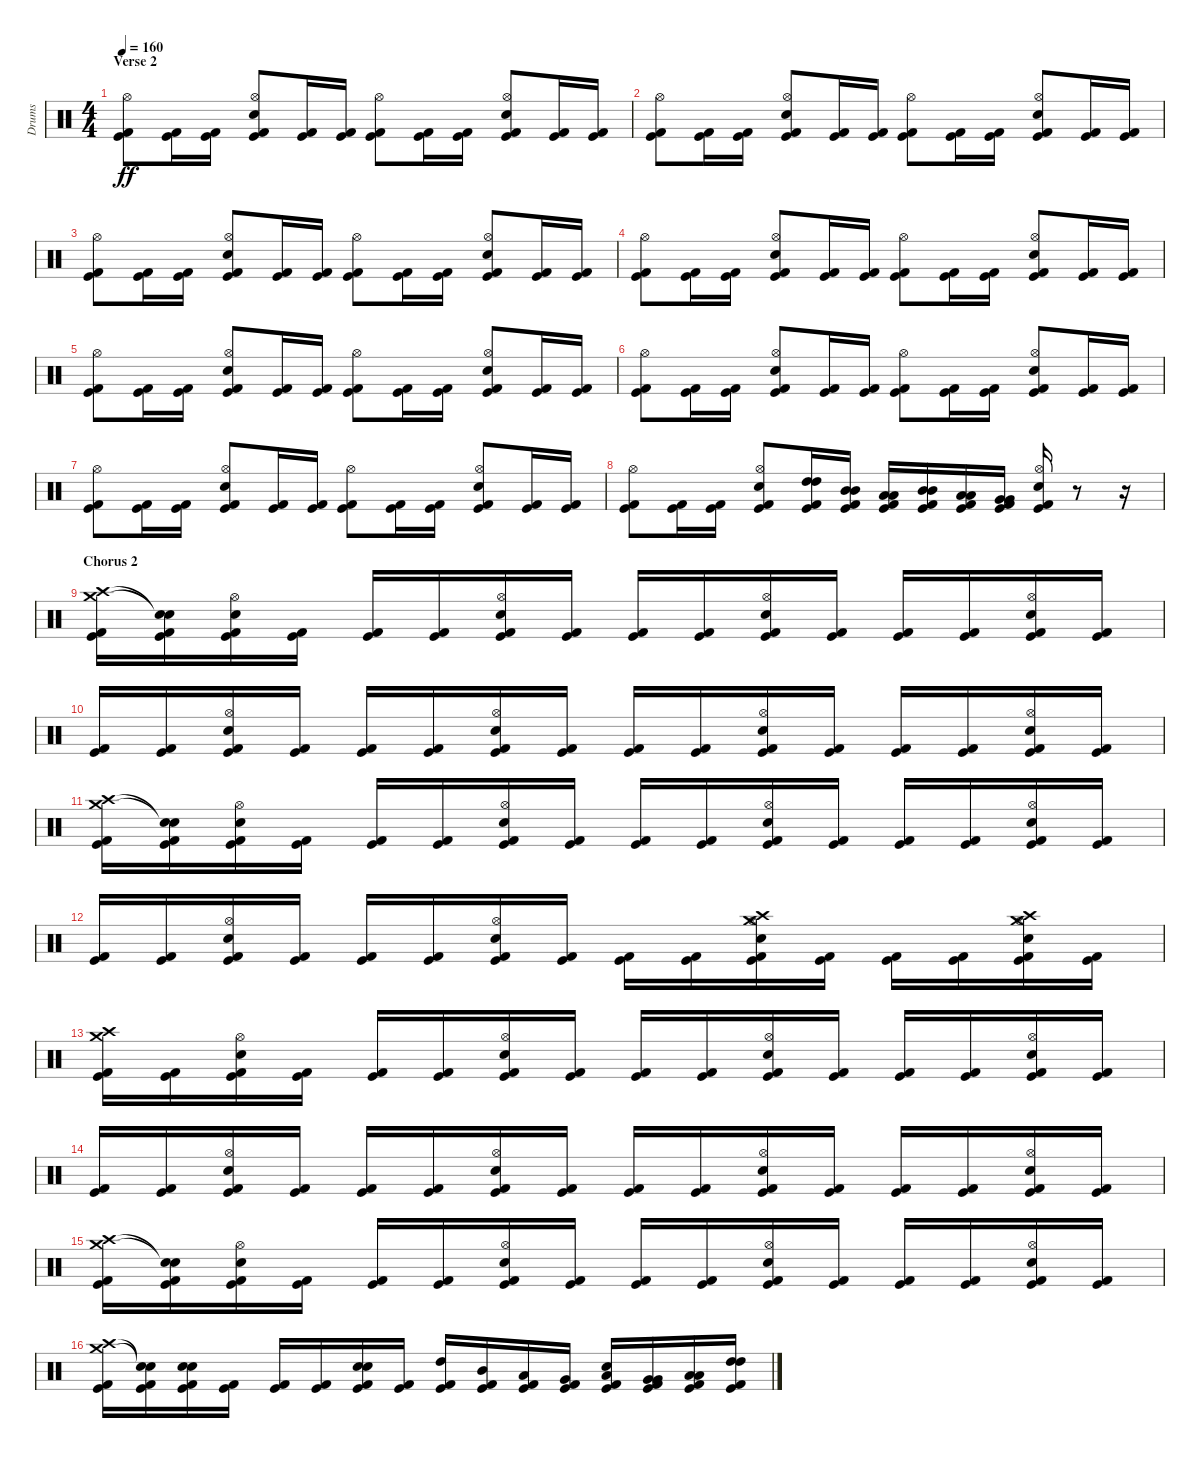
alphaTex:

\track ("Drums" "Drums") {instrument percussion}
\staff {score}
\articulation defaults
\ts (4 4)
\section ("" "Verse 2")
\tempo 160
\clef neutral
\ks c
("Kick (hit) 2" "Kick (hit)" "Hi-Hat (open)").8{dy ff} ("Kick (hit) 2" "Kick (hit)").16 ("Kick (hit) 2" "Kick (hit)").16 ("Kick (hit) 2" "Kick (hit)" "Snare (hit) 2" "Hi-Hat (open)").8 ("Kick (hit) 2" "Kick (hit)").16 ("Kick (hit) 2" "Kick (hit)").16 ("Kick (hit) 2" "Kick (hit)" "Hi-Hat (open)").8 ("Kick (hit) 2" "Kick (hit)").16 ("Kick (hit) 2" "Kick (hit)").16 ("Kick (hit) 2" "Kick (hit)" "Snare (hit) 2" "Hi-Hat (open)").8 ("Kick (hit) 2" "Kick (hit)").16 ("Kick (hit) 2" "Kick (hit)").16 |
("Kick (hit) 2" "Kick (hit)" "Hi-Hat (open)").8 ("Kick (hit) 2" "Kick (hit)").16 ("Kick (hit) 2" "Kick (hit)").16 ("Kick (hit) 2" "Kick (hit)" "Snare (hit) 2" "Hi-Hat (open)").8 ("Kick (hit) 2" "Kick (hit)").16 ("Kick (hit) 2" "Kick (hit)").16 ("Kick (hit) 2" "Kick (hit)" "Hi-Hat (open)").8 ("Kick (hit) 2" "Kick (hit)").16 ("Kick (hit) 2" "Kick (hit)").16 ("Kick (hit) 2" "Kick (hit)" "Snare (hit) 2" "Hi-Hat (open)").8 ("Kick (hit) 2" "Kick (hit)").16 ("Kick (hit) 2" "Kick (hit)").16 |
("Kick (hit) 2" "Kick (hit)" "Hi-Hat (open)").8 ("Kick (hit) 2" "Kick (hit)").16 ("Kick (hit) 2" "Kick (hit)").16 ("Kick (hit) 2" "Kick (hit)" "Snare (hit) 2" "Hi-Hat (open)").8 ("Kick (hit) 2" "Kick (hit)").16 ("Kick (hit) 2" "Kick (hit)").16 ("Kick (hit) 2" "Kick (hit)" "Hi-Hat (open)").8 ("Kick (hit) 2" "Kick (hit)").16 ("Kick (hit) 2" "Kick (hit)").16 ("Kick (hit) 2" "Kick (hit)" "Snare (hit) 2" "Hi-Hat (open)").8 ("Kick (hit) 2" "Kick (hit)").16 ("Kick (hit) 2" "Kick (hit)").16 |
("Kick (hit) 2" "Kick (hit)" "Hi-Hat (open)").8 ("Kick (hit) 2" "Kick (hit)").16 ("Kick (hit) 2" "Kick (hit)").16 ("Kick (hit) 2" "Kick (hit)" "Snare (hit) 2" "Hi-Hat (open)").8 ("Kick (hit) 2" "Kick (hit)").16 ("Kick (hit) 2" "Kick (hit)").16 ("Kick (hit) 2" "Kick (hit)" "Hi-Hat (open)").8 ("Kick (hit) 2" "Kick (hit)").16 ("Kick (hit) 2" "Kick (hit)").16 ("Kick (hit) 2" "Kick (hit)" "Snare (hit) 2" "Hi-Hat (open)").8 ("Kick (hit) 2" "Kick (hit)").16 ("Kick (hit) 2" "Kick (hit)").16 |
("Kick (hit) 2" "Kick (hit)" "Hi-Hat (open)").8 ("Kick (hit) 2" "Kick (hit)").16 ("Kick (hit) 2" "Kick (hit)").16 ("Kick (hit) 2" "Kick (hit)" "Snare (hit) 2" "Hi-Hat (open)").8 ("Kick (hit) 2" "Kick (hit)").16 ("Kick (hit) 2" "Kick (hit)").16 ("Kick (hit) 2" "Kick (hit)" "Hi-Hat (open)").8 ("Kick (hit) 2" "Kick (hit)").16 ("Kick (hit) 2" "Kick (hit)").16 ("Kick (hit) 2" "Kick (hit)" "Snare (hit) 2" "Hi-Hat (open)").8 ("Kick (hit) 2" "Kick (hit)").16 ("Kick (hit) 2" "Kick (hit)").16 |
("Kick (hit) 2" "Kick (hit)" "Hi-Hat (open)").8 ("Kick (hit) 2" "Kick (hit)").16 ("Kick (hit) 2" "Kick (hit)").16 ("Kick (hit) 2" "Kick (hit)" "Snare (hit) 2" "Hi-Hat (open)").8 ("Kick (hit) 2" "Kick (hit)").16 ("Kick (hit) 2" "Kick (hit)").16 ("Kick (hit) 2" "Kick (hit)" "Hi-Hat (open)").8 ("Kick (hit) 2" "Kick (hit)").16 ("Kick (hit) 2" "Kick (hit)").16 ("Kick (hit) 2" "Kick (hit)" "Snare (hit) 2" "Hi-Hat (open)").8 ("Kick (hit) 2" "Kick (hit)").16 ("Kick (hit) 2" "Kick (hit)").16 |
("Kick (hit) 2" "Kick (hit)" "Hi-Hat (open)").8 ("Kick (hit) 2" "Kick (hit)").16 ("Kick (hit) 2" "Kick (hit)").16 ("Kick (hit) 2" "Kick (hit)" "Snare (hit) 2" "Hi-Hat (open)").8 ("Kick (hit) 2" "Kick (hit)").16 ("Kick (hit) 2" "Kick (hit)").16 ("Kick (hit) 2" "Kick (hit)" "Hi-Hat (open)").8 ("Kick (hit) 2" "Kick (hit)").16 ("Kick (hit) 2" "Kick (hit)").16 ("Kick (hit) 2" "Kick (hit)" "Snare (hit) 2" "Hi-Hat (open)").8 ("Kick (hit) 2" "Kick (hit)").16 ("Kick (hit) 2" "Kick (hit)").16 |
("Kick (hit) 2" "Kick (hit)" "Hi-Hat (open)").8 ("Kick (hit) 2" "Kick (hit)").16 ("Kick (hit) 2" "Kick (hit)").16 ("Kick (hit) 2" "Kick (hit)" "Snare (hit) 2" "Hi-Hat (open)").8 ("Kick (hit) 2" "Kick (hit)" "High Tom (hit)" "High Tom (hit)").16 ("Kick (hit) 2" "Kick (hit)" "Mid Tom (hit)" "Mid Tom (hit)").16 ("Kick (hit) 2" "Kick (hit)" "Low Tom (hit)" "Low Tom (hit)").16 ("Kick (hit) 2" "Kick (hit)" "Mid Tom (hit)" "Mid Tom (hit)").16 ("Kick (hit) 2" "Kick (hit)" "Low Tom (hit)" "Low Tom (hit)").16 ("Kick (hit) 2" "Kick (hit)" "Very Low Tom (hit)" "Very Low Tom (hit)").16 ("Kick (hit) 2" "Kick (hit)" "Snare (hit) 2" "Hi-Hat (open)").16 r.8 r.16 |
\section ("" "Chorus 2")
("Kick (hit) 2" "Kick (hit)" "Crash high (hit)" "Crash medium (hit)").16 ("Kick (hit) 2" "Kick (hit)" "Snare (hit)"{t} "Snare (hit)"{t}).16 ("Kick (hit) 2" "Kick (hit)" "Hi-Hat (open)" "Snare (hit) 2").16 ("Kick (hit) 2" "Kick (hit)").16 ("Kick (hit) 2" "Kick (hit)").16 ("Kick (hit) 2" "Kick (hit)").16 ("Kick (hit) 2" "Kick (hit)" "Hi-Hat (open)" "Snare (hit) 2").16 ("Kick (hit) 2" "Kick (hit)").16 ("Kick (hit) 2" "Kick (hit)").16 ("Kick (hit) 2" "Kick (hit)").16 ("Kick (hit) 2" "Kick (hit)" "Hi-Hat (open)" "Snare (hit) 2").16 ("Kick (hit) 2" "Kick (hit)").16 ("Kick (hit) 2" "Kick (hit)").16 ("Kick (hit) 2" "Kick (hit)").16 ("Kick (hit) 2" "Kick (hit)" "Hi-Hat (open)" "Snare (hit) 2").16 ("Kick (hit) 2" "Kick (hit)").16 |
("Kick (hit) 2" "Kick (hit)").16 ("Kick (hit) 2" "Kick (hit)").16 ("Kick (hit) 2" "Kick (hit)" "Hi-Hat (open)" "Snare (hit) 2").16 ("Kick (hit) 2" "Kick (hit)").16 ("Kick (hit) 2" "Kick (hit)").16 ("Kick (hit) 2" "Kick (hit)").16 ("Kick (hit) 2" "Kick (hit)" "Hi-Hat (open)" "Snare (hit) 2").16 ("Kick (hit) 2" "Kick (hit)").16 ("Kick (hit) 2" "Kick (hit)").16 ("Kick (hit) 2" "Kick (hit)").16 ("Kick (hit) 2" "Kick (hit)" "Hi-Hat (open)" "Snare (hit) 2").16 ("Kick (hit) 2" "Kick (hit)").16 ("Kick (hit) 2" "Kick (hit)").16 ("Kick (hit) 2" "Kick (hit)").16 ("Kick (hit) 2" "Kick (hit)" "Hi-Hat (open)" "Snare (hit) 2").16 ("Kick (hit) 2" "Kick (hit)").16 |
("Kick (hit) 2" "Kick (hit)" "Crash high (hit)" "Crash medium (hit)").16 ("Kick (hit) 2" "Kick (hit)" "Snare (hit)"{t} "Snare (hit)"{t}).16 ("Kick (hit) 2" "Kick (hit)" "Hi-Hat (open)" "Snare (hit) 2").16 ("Kick (hit) 2" "Kick (hit)").16 ("Kick (hit) 2" "Kick (hit)").16 ("Kick (hit) 2" "Kick (hit)").16 ("Kick (hit) 2" "Kick (hit)" "Hi-Hat (open)" "Snare (hit) 2").16 ("Kick (hit) 2" "Kick (hit)").16 ("Kick (hit) 2" "Kick (hit)").16 ("Kick (hit) 2" "Kick (hit)").16 ("Kick (hit) 2" "Kick (hit)" "Hi-Hat (open)" "Snare (hit) 2").16 ("Kick (hit) 2" "Kick (hit)").16 ("Kick (hit) 2" "Kick (hit)").16 ("Kick (hit) 2" "Kick (hit)").16 ("Kick (hit) 2" "Kick (hit)" "Hi-Hat (open)" "Snare (hit) 2").16 ("Kick (hit) 2" "Kick (hit)").16 |
("Kick (hit) 2" "Kick (hit)").16 ("Kick (hit) 2" "Kick (hit)").16 ("Kick (hit) 2" "Kick (hit)" "Hi-Hat (open)" "Snare (hit) 2").16 ("Kick (hit) 2" "Kick (hit)").16 ("Kick (hit) 2" "Kick (hit)").16 ("Kick (hit) 2" "Kick (hit)").16 ("Kick (hit) 2" "Kick (hit)" "Hi-Hat (open)" "Snare (hit) 2").16 ("Kick (hit) 2" "Kick (hit)").16 ("Kick (hit) 2" "Kick (hit)").16 ("Kick (hit) 2" "Kick (hit)").16 ("Kick (hit) 2" "Kick (hit)" "Hi-Hat (open)" "Snare (hit) 2" "Crash high (hit)" "Crash medium (hit)").16 ("Kick (hit) 2" "Kick (hit)").16 ("Kick (hit) 2" "Kick (hit)").16 ("Kick (hit) 2" "Kick (hit)").16 ("Kick (hit) 2" "Kick (hit)" "Hi-Hat (open)" "Snare (hit) 2" "Crash high (hit)" "Crash medium (hit)").16 ("Kick (hit) 2" "Kick (hit)").16 |
("Kick (hit) 2" "Kick (hit)" "Crash high (hit)" "Crash medium (hit)").16 ("Kick (hit) 2" "Kick (hit)").16 ("Kick (hit) 2" "Kick (hit)" "Hi-Hat (open)" "Snare (hit) 2").16 ("Kick (hit) 2" "Kick (hit)").16 ("Kick (hit) 2" "Kick (hit)").16 ("Kick (hit) 2" "Kick (hit)").16 ("Kick (hit) 2" "Kick (hit)" "Hi-Hat (open)" "Snare (hit) 2").16 ("Kick (hit) 2" "Kick (hit)").16 ("Kick (hit) 2" "Kick (hit)").16 ("Kick (hit) 2" "Kick (hit)").16 ("Kick (hit) 2" "Kick (hit)" "Hi-Hat (open)" "Snare (hit) 2").16 ("Kick (hit) 2" "Kick (hit)").16 ("Kick (hit) 2" "Kick (hit)").16 ("Kick (hit) 2" "Kick (hit)").16 ("Kick (hit) 2" "Kick (hit)" "Hi-Hat (open)" "Snare (hit) 2").16 ("Kick (hit) 2" "Kick (hit)").16 |
("Kick (hit) 2" "Kick (hit)").16 ("Kick (hit) 2" "Kick (hit)").16 ("Kick (hit) 2" "Kick (hit)" "Hi-Hat (open)" "Snare (hit) 2").16 ("Kick (hit) 2" "Kick (hit)").16 ("Kick (hit) 2" "Kick (hit)").16 ("Kick (hit) 2" "Kick (hit)").16 ("Kick (hit) 2" "Kick (hit)" "Hi-Hat (open)" "Snare (hit) 2").16 ("Kick (hit) 2" "Kick (hit)").16 ("Kick (hit) 2" "Kick (hit)").16 ("Kick (hit) 2" "Kick (hit)").16 ("Kick (hit) 2" "Kick (hit)" "Hi-Hat (open)" "Snare (hit) 2").16 ("Kick (hit) 2" "Kick (hit)").16 ("Kick (hit) 2" "Kick (hit)").16 ("Kick (hit) 2" "Kick (hit)").16 ("Kick (hit) 2" "Kick (hit)" "Hi-Hat (open)" "Snare (hit) 2").16 ("Kick (hit) 2" "Kick (hit)").16 |
("Kick (hit) 2" "Kick (hit)" "Crash high (hit)" "Crash medium (hit)").16 ("Kick (hit) 2" "Kick (hit)" "Snare (hit)"{t} "Snare (hit)"{t}).16 ("Kick (hit) 2" "Kick (hit)" "Hi-Hat (open)" "Snare (hit) 2").16 ("Kick (hit) 2" "Kick (hit)").16 ("Kick (hit) 2" "Kick (hit)").16 ("Kick (hit) 2" "Kick (hit)").16 ("Kick (hit) 2" "Kick (hit)" "Hi-Hat (open)" "Snare (hit) 2").16 ("Kick (hit) 2" "Kick (hit)").16 ("Kick (hit) 2" "Kick (hit)").16 ("Kick (hit) 2" "Kick (hit)").16 ("Kick (hit) 2" "Kick (hit)" "Hi-Hat (open)" "Snare (hit) 2").16 ("Kick (hit) 2" "Kick (hit)").16 ("Kick (hit) 2" "Kick (hit)").16 ("Kick (hit) 2" "Kick (hit)").16 ("Kick (hit) 2" "Kick (hit)" "Hi-Hat (open)" "Snare (hit) 2").16 ("Kick (hit) 2" "Kick (hit)").16 |
("Kick (hit) 2" "Kick (hit)" "Crash high (hit)" "Crash medium (hit)").16 ("Kick (hit) 2" "Kick (hit)" "Snare (hit)"{t} "Snare (hit)"{t}).16 ("Kick (hit) 2" "Kick (hit)" "Electric Snare (hit)" "Snare (hit) 2").16 ("Kick (hit) 2" "Kick (hit)").16 ("Kick (hit) 2" "Kick (hit)").16 ("Kick (hit) 2" "Kick (hit)").16 ("Kick (hit) 2" "Kick (hit)" "Electric Snare (hit)" "Snare (hit) 2").16 ("Kick (hit) 2" "Kick (hit)").16 ("Kick (hit) 2" "Kick (hit)" "High Tom (hit)").16 ("Kick (hit) 2" "Kick (hit)" "Mid Tom (hit)").16 ("Kick (hit) 2" "Kick (hit)" "Low Tom (hit)").16 ("Kick (hit) 2" "Kick (hit)" "Very Low Tom (hit)").16 ("Kick (hit) 2" "Kick (hit)" "Low Tom (hit)" "Snare (hit)").16 ("Kick (hit) 2" "Kick (hit)" "Very Low Tom (hit)" "Very Low Tom (hit)").16 ("Kick (hit) 2" "Kick (hit)" "Low Floor Tom (hit)" "Low Floor Tom (hit)").16 ("Kick (hit) 2" "Kick (hit)" "High Tom (hit)" "High Tom (hit)").16
